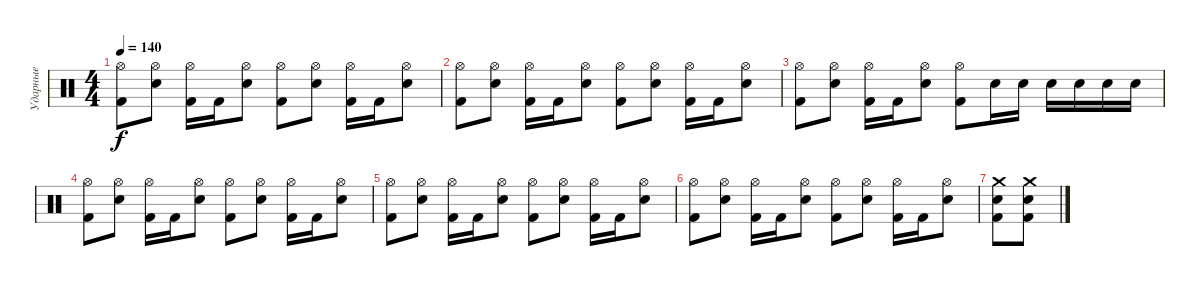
\track ("Ударные" "Ударные") {instrument percussion}
\staff {score}
\articulation defaults
\ts (4 4)
\tempo 140
\clef neutral
\ks c
("Hi-Hat (open)" "Kick (hit) 2").8{dy f} ("Hi-Hat (open)" "Electric Snare (hit)").8 ("Hi-Hat (open)" "Kick (hit) 2").16 "Kick (hit) 2".16 ("Hi-Hat (open)" "Electric Snare (hit)").8 ("Hi-Hat (open)" "Kick (hit) 2").8 ("Hi-Hat (open)" "Electric Snare (hit)").8 ("Hi-Hat (open)" "Kick (hit) 2").16 "Kick (hit) 2".16 ("Hi-Hat (open)" "Electric Snare (hit)").8 |
("Hi-Hat (open)" "Kick (hit) 2").8 ("Hi-Hat (open)" "Electric Snare (hit)").8 ("Hi-Hat (open)" "Kick (hit) 2").16 "Kick (hit) 2".16 ("Hi-Hat (open)" "Electric Snare (hit)").8 ("Hi-Hat (open)" "Kick (hit) 2").8 ("Hi-Hat (open)" "Electric Snare (hit)").8 ("Hi-Hat (open)" "Kick (hit) 2").16 "Kick (hit) 2".16 ("Hi-Hat (open)" "Electric Snare (hit)").8 |
("Hi-Hat (open)" "Kick (hit) 2").8 ("Hi-Hat (open)" "Electric Snare (hit)").8 ("Hi-Hat (open)" "Kick (hit) 2").16 "Kick (hit) 2".16 ("Hi-Hat (open)" "Electric Snare (hit)").8 ("Hi-Hat (open)" "Kick (hit) 2").8 "Electric Snare (hit)".16 "Electric Snare (hit)".16 "Electric Snare (hit)".16 "Electric Snare (hit)".16 "Electric Snare (hit)".16 "Electric Snare (hit)".16 |
("Hi-Hat (open)" "Kick (hit) 2").8 ("Hi-Hat (open)" "Electric Snare (hit)").8 ("Hi-Hat (open)" "Kick (hit) 2").16 "Kick (hit) 2".16 ("Hi-Hat (open)" "Electric Snare (hit)").8 ("Hi-Hat (open)" "Kick (hit) 2").8 ("Hi-Hat (open)" "Electric Snare (hit)").8 ("Hi-Hat (open)" "Kick (hit) 2").16 "Kick (hit) 2".16 ("Hi-Hat (open)" "Electric Snare (hit)").8 |
("Hi-Hat (open)" "Kick (hit) 2").8 ("Hi-Hat (open)" "Electric Snare (hit)").8 ("Hi-Hat (open)" "Kick (hit) 2").16 "Kick (hit) 2".16 ("Hi-Hat (open)" "Electric Snare (hit)").8 ("Hi-Hat (open)" "Kick (hit) 2").8 ("Hi-Hat (open)" "Electric Snare (hit)").8 ("Hi-Hat (open)" "Kick (hit) 2").16 "Kick (hit) 2".16 ("Hi-Hat (open)" "Electric Snare (hit)").8 |
("Hi-Hat (open)" "Kick (hit) 2").8 ("Hi-Hat (open)" "Electric Snare (hit)").8 ("Hi-Hat (open)" "Kick (hit) 2").16 "Kick (hit) 2".16 ("Hi-Hat (open)" "Electric Snare (hit)").8 ("Hi-Hat (open)" "Kick (hit) 2").8 ("Hi-Hat (open)" "Electric Snare (hit)").8 ("Hi-Hat (open)" "Kick (hit) 2").16 "Kick (hit) 2".16 ("Hi-Hat (open)" "Electric Snare (hit)").8 |
("Crash medium (hit)" "Kick (hit) 2" "Electric Snare (hit)").8 ("Crash medium (hit)" "Kick (hit) 2" "Electric Snare (hit)").8
